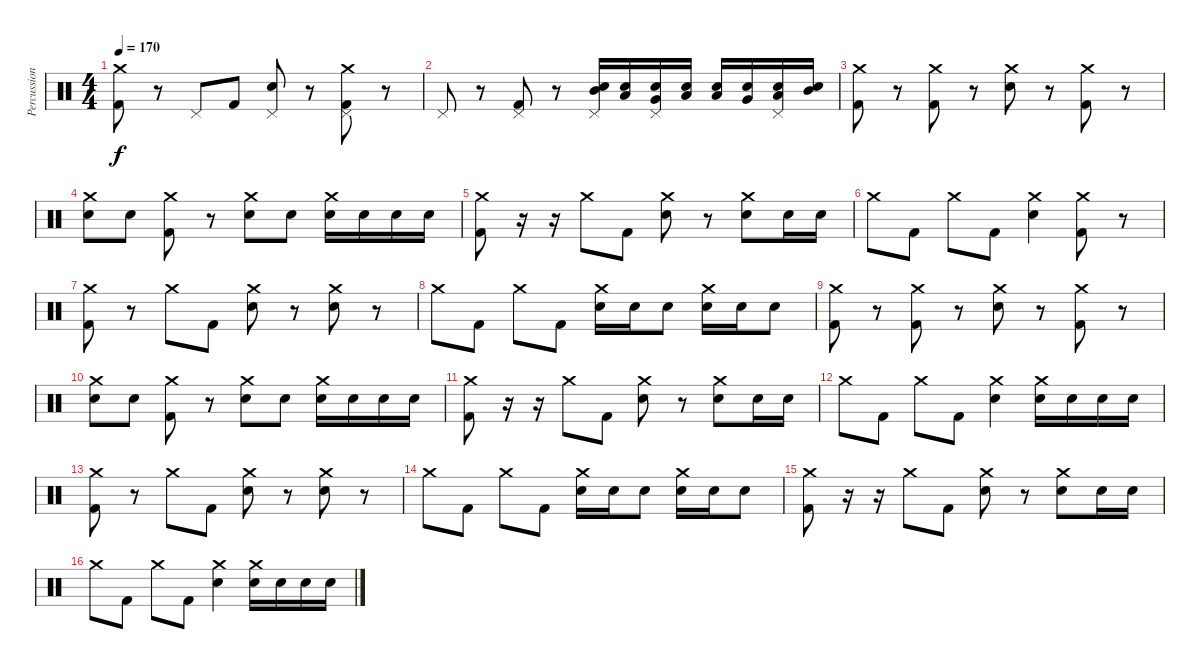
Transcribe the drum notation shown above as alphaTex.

\track ("Percussion" "Percussion") {instrument percussion}
\staff {score}
\articulation defaults
\ts (4 4)
\tempo 170
\clef neutral
\ks c
("Crash medium (hit)" "Kick (hit) 2").8{dy f} r.8 "Pedal Hi-Hat (hit)".8 "Kick (hit) 2".8 ("Pedal Hi-Hat (hit)" "Electric Snare (hit)").8 r.8 ("Crash medium (hit)" "Pedal Hi-Hat (hit)" "Kick (hit) 2").8 r.8 |
"Pedal Hi-Hat (hit)".8 r.8 ("Pedal Hi-Hat (hit)" "Kick (hit) 2").8 r.8 ("Pedal Hi-Hat (hit)" "Mid Tom (hit)" "Electric Snare (hit)").16 ("Low Tom (hit)" "Electric Snare (hit)").16 ("Pedal Hi-Hat (hit)" "Very Low Tom (hit)" "Electric Snare (hit)").16 ("Low Floor Tom (hit)" "Electric Snare (hit)").16 ("Low Floor Tom (hit)" "Electric Snare (hit)").16 ("Very Low Tom (hit)" "Electric Snare (hit)").16 ("Pedal Hi-Hat (hit)" "Low Tom (hit)" "Electric Snare (hit)").16 ("Mid Tom (hit)" "Electric Snare (hit)").16 |
("Crash medium (hit)" "Kick (hit) 2").8 r.8 ("Crash medium (hit)" "Kick (hit) 2").8 r.8 ("Crash medium (hit)" "Electric Snare (hit)").8 r.8 ("Crash medium (hit)" "Kick (hit) 2").8 r.8 |
("Crash medium (hit)" "Electric Snare (hit)").8 "Electric Snare (hit)".8 ("Crash medium (hit)" "Kick (hit) 2").8 r.8 ("Crash medium (hit)" "Electric Snare (hit)").8 "Electric Snare (hit)".8 ("Crash medium (hit)" "Electric Snare (hit)").16 "Electric Snare (hit)".16 "Electric Snare (hit)".16 "Electric Snare (hit)".16 |
("Crash medium (hit)" "Kick (hit) 2").8 r.16 r.16 "Crash medium (hit)".8 "Kick (hit) 2".8 ("Crash medium (hit)" "Electric Snare (hit)").8 r.8 ("Crash medium (hit)" "Electric Snare (hit)").8 "Electric Snare (hit)".16 "Electric Snare (hit)".16 |
"Crash medium (hit)".8 "Kick (hit) 2".8 "Crash medium (hit)".8 "Kick (hit) 2".8 ("Crash medium (hit)" "Electric Snare (hit)").4 ("Crash medium (hit)" "Kick (hit) 2").8 r.8 |
("Crash medium (hit)" "Kick (hit) 2").8 r.8 "Crash medium (hit)".8 "Kick (hit) 2".8 ("Crash medium (hit)" "Electric Snare (hit)").8 r.8 ("Crash medium (hit)" "Electric Snare (hit)").8 r.8 |
"Crash medium (hit)".8 "Kick (hit) 2".8 "Crash medium (hit)".8 "Kick (hit) 2".8 ("Crash medium (hit)" "Electric Snare (hit)").16 "Electric Snare (hit)".16 "Electric Snare (hit)".8 ("Crash medium (hit)" "Electric Snare (hit)").16 "Electric Snare (hit)".16 "Electric Snare (hit)".8 |
("Crash medium (hit)" "Kick (hit) 2").8 r.8 ("Crash medium (hit)" "Kick (hit) 2").8 r.8 ("Crash medium (hit)" "Electric Snare (hit)").8 r.8 ("Crash medium (hit)" "Kick (hit) 2").8 r.8 |
("Crash medium (hit)" "Electric Snare (hit)").8 "Electric Snare (hit)".8 ("Crash medium (hit)" "Kick (hit) 2").8 r.8 ("Crash medium (hit)" "Electric Snare (hit)").8 "Electric Snare (hit)".8 ("Crash medium (hit)" "Electric Snare (hit)").16 "Electric Snare (hit)".16 "Electric Snare (hit)".16 "Electric Snare (hit)".16 |
("Crash medium (hit)" "Kick (hit) 2").8 r.16 r.16 "Crash medium (hit)".8 "Kick (hit) 2".8 ("Crash medium (hit)" "Electric Snare (hit)").8 r.8 ("Crash medium (hit)" "Electric Snare (hit)").8 "Electric Snare (hit)".16 "Electric Snare (hit)".16 |
"Crash medium (hit)".8 "Kick (hit) 2".8 "Crash medium (hit)".8 "Kick (hit) 2".8 ("Crash medium (hit)" "Electric Snare (hit)").4 ("Crash medium (hit)" "Electric Snare (hit)").16 "Electric Snare (hit)".16 "Electric Snare (hit)".16 "Electric Snare (hit)".16 |
("Crash medium (hit)" "Kick (hit) 2").8 r.8 "Crash medium (hit)".8 "Kick (hit) 2".8 ("Crash medium (hit)" "Electric Snare (hit)").8 r.8 ("Crash medium (hit)" "Electric Snare (hit)").8 r.8 |
"Crash medium (hit)".8 "Kick (hit) 2".8 "Crash medium (hit)".8 "Kick (hit) 2".8 ("Crash medium (hit)" "Electric Snare (hit)").16 "Electric Snare (hit)".16 "Electric Snare (hit)".8 ("Crash medium (hit)" "Electric Snare (hit)").16 "Electric Snare (hit)".16 "Electric Snare (hit)".8 |
("Crash medium (hit)" "Kick (hit) 2").8 r.16 r.16 "Crash medium (hit)".8 "Kick (hit) 2".8 ("Crash medium (hit)" "Electric Snare (hit)").8 r.8 ("Crash medium (hit)" "Electric Snare (hit)").8 "Electric Snare (hit)".16 "Electric Snare (hit)".16 |
"Crash medium (hit)".8 "Kick (hit) 2".8 "Crash medium (hit)".8 "Kick (hit) 2".8 ("Crash medium (hit)" "Electric Snare (hit)").4 ("Crash medium (hit)" "Electric Snare (hit)").16 "Electric Snare (hit)".16 "Electric Snare (hit)".16 "Electric Snare (hit)".16
